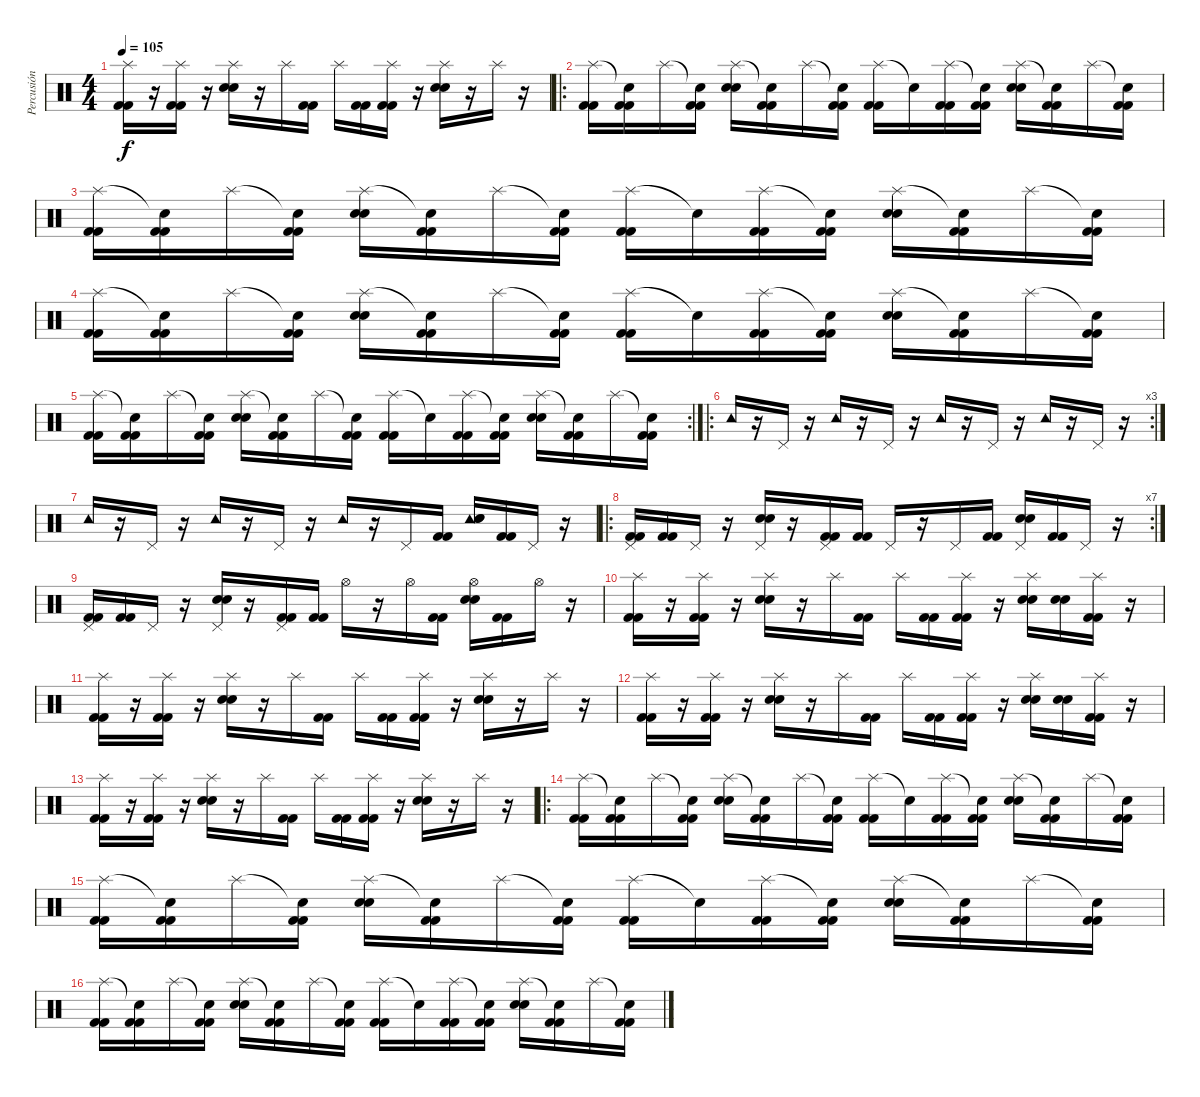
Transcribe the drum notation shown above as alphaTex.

\track ("Percusión" "Percusión") {instrument percussion}
\staff {score}
\articulation defaults
\ts (4 4)
\tempo 105
\clef neutral
\ks c
("Splash (hit)" "Kick (hit) 2" "Kick (hit) 2").16{dy f} r.16 ("Splash (hit)" "Kick (hit) 2" "Kick (hit) 2").16 r.16 ("Splash (hit)" "Electric Snare (hit)" "Electric Snare (hit)").16 r.16 "Splash (hit)".16 ("Kick (hit) 2" "Kick (hit) 2").16 "Splash (hit)".16 ("Kick (hit) 2" "Kick (hit) 2").16 ("Splash (hit)" "Kick (hit) 2" "Kick (hit) 2").16 r.16 ("Splash (hit)" "Electric Snare (hit)" "Electric Snare (hit)").16 r.16 "Splash (hit)".16 r.16 |
\ro
("Splash (hit)" "Kick (hit) 2" "Kick (hit) 2").16 ("Snare (hit)"{t} "Kick (hit) 2" "Kick (hit) 2").16 "Splash (hit)".16 ("Snare (hit)"{t} "Kick (hit) 2" "Kick (hit) 2").16 ("Splash (hit)" "Electric Snare (hit)" "Electric Snare (hit)").16 ("Snare (hit)"{t} "Kick (hit) 2" "Kick (hit) 2").16 "Splash (hit)".16 ("Snare (hit)"{t} "Kick (hit) 2" "Kick (hit) 2").16 ("Splash (hit)" "Kick (hit) 2" "Kick (hit) 2").16 "Snare (hit)"{t}.16 ("Splash (hit)" "Kick (hit) 2" "Kick (hit) 2").16 ("Snare (hit)"{t} "Kick (hit) 2" "Kick (hit) 2").16 ("Splash (hit)" "Electric Snare (hit)" "Electric Snare (hit)").16 ("Snare (hit)"{t} "Kick (hit) 2" "Kick (hit) 2").16 "Splash (hit)".16 ("Snare (hit)"{t} "Kick (hit) 2" "Kick (hit) 2").16 |
("Splash (hit)" "Kick (hit) 2" "Kick (hit) 2").16 ("Snare (hit)"{t} "Kick (hit) 2" "Kick (hit) 2").16 "Splash (hit)".16 ("Snare (hit)"{t} "Kick (hit) 2" "Kick (hit) 2").16 ("Splash (hit)" "Electric Snare (hit)" "Electric Snare (hit)").16 ("Snare (hit)"{t} "Kick (hit) 2" "Kick (hit) 2").16 "Splash (hit)".16 ("Snare (hit)"{t} "Kick (hit) 2" "Kick (hit) 2").16 ("Splash (hit)" "Kick (hit) 2" "Kick (hit) 2").16 "Snare (hit)"{t}.16 ("Splash (hit)" "Kick (hit) 2" "Kick (hit) 2").16 ("Snare (hit)"{t} "Kick (hit) 2" "Kick (hit) 2").16 ("Splash (hit)" "Electric Snare (hit)" "Electric Snare (hit)").16 ("Snare (hit)"{t} "Kick (hit) 2" "Kick (hit) 2").16 "Splash (hit)".16 ("Snare (hit)"{t} "Kick (hit) 2" "Kick (hit) 2").16 |
("Splash (hit)" "Kick (hit) 2" "Kick (hit) 2").16 ("Snare (hit)"{t} "Kick (hit) 2" "Kick (hit) 2").16 "Splash (hit)".16 ("Snare (hit)"{t} "Kick (hit) 2" "Kick (hit) 2").16 ("Splash (hit)" "Electric Snare (hit)" "Electric Snare (hit)").16 ("Snare (hit)"{t} "Kick (hit) 2" "Kick (hit) 2").16 "Splash (hit)".16 ("Snare (hit)"{t} "Kick (hit) 2" "Kick (hit) 2").16 ("Splash (hit)" "Kick (hit) 2" "Kick (hit) 2").16 "Snare (hit)"{t}.16 ("Splash (hit)" "Kick (hit) 2" "Kick (hit) 2").16 ("Snare (hit)"{t} "Kick (hit) 2" "Kick (hit) 2").16 ("Splash (hit)" "Electric Snare (hit)" "Electric Snare (hit)").16 ("Snare (hit)"{t} "Kick (hit) 2" "Kick (hit) 2").16 "Splash (hit)".16 ("Snare (hit)"{t} "Kick (hit) 2" "Kick (hit) 2").16 |
\rc 2
("Splash (hit)" "Kick (hit) 2" "Kick (hit) 2").16 ("Snare (hit)"{t} "Kick (hit) 2" "Kick (hit) 2").16 "Splash (hit)".16 ("Snare (hit)"{t} "Kick (hit) 2" "Kick (hit) 2").16 ("Splash (hit)" "Electric Snare (hit)" "Electric Snare (hit)").16 ("Snare (hit)"{t} "Kick (hit) 2" "Kick (hit) 2").16 "Splash (hit)".16 ("Snare (hit)"{t} "Kick (hit) 2" "Kick (hit) 2").16 ("Splash (hit)" "Kick (hit) 2" "Kick (hit) 2").16 "Snare (hit)"{t}.16 ("Splash (hit)" "Kick (hit) 2" "Kick (hit) 2").16 ("Snare (hit)"{t} "Kick (hit) 2" "Kick (hit) 2").16 ("Splash (hit)" "Electric Snare (hit)" "Electric Snare (hit)").16 ("Snare (hit)"{t} "Kick (hit) 2" "Kick (hit) 2").16 "Splash (hit)".16 ("Snare (hit)"{t} "Kick (hit) 2" "Kick (hit) 2").16 |
\ro
\rc 3 "Tambourine (hit)".16
r.16 "Pedal Hi-Hat (hit)".16 r.16 "Tambourine (hit)".16 r.16 "Pedal Hi-Hat (hit)".16 r.16 "Tambourine (hit)".16 r.16 "Pedal Hi-Hat (hit)".16 r.16 "Tambourine (hit)".16 r.16 "Pedal Hi-Hat (hit)".16 r.16 |
"Tambourine (hit)".16 r.16 "Pedal Hi-Hat (hit)".16 r.16 "Tambourine (hit)".16 r.16 "Pedal Hi-Hat (hit)".16 r.16 "Tambourine (hit)".16 r.16 "Pedal Hi-Hat (hit)".16 ("Kick (hit) 2" "Kick (hit) 2").16 ("Tambourine (hit)" "Electric Snare (hit)" "Electric Snare (hit)").16 ("Kick (hit) 2" "Kick (hit) 2").16 "Pedal Hi-Hat (hit)".16 r.16 |
\ro
\rc 7
("Pedal Hi-Hat (hit)" "Kick (hit) 2" "Kick (hit) 2").16 ("Kick (hit) 2" "Kick (hit) 2").16 "Pedal Hi-Hat (hit)".16 r.16 ("Pedal Hi-Hat (hit)" "Electric Snare (hit)" "Electric Snare (hit)").16 r.16 ("Pedal Hi-Hat (hit)" "Kick (hit) 2" "Kick (hit) 2").16 ("Kick (hit) 2" "Kick (hit) 2").16 "Pedal Hi-Hat (hit)".16 r.16 "Pedal Hi-Hat (hit)".16 ("Kick (hit) 2" "Kick (hit) 2").16 ("Pedal Hi-Hat (hit)" "Electric Snare (hit)" "Electric Snare (hit)").16 ("Kick (hit) 2" "Kick (hit) 2").16 "Pedal Hi-Hat (hit)".16 r.16 |
("Pedal Hi-Hat (hit)" "Kick (hit) 2" "Kick (hit) 2").16 ("Kick (hit) 2" "Kick (hit) 2").16 "Pedal Hi-Hat (hit)".16 r.16 ("Pedal Hi-Hat (hit)" "Electric Snare (hit)" "Electric Snare (hit)").16 r.16 ("Pedal Hi-Hat (hit)" "Kick (hit) 2" "Kick (hit) 2").16 ("Kick (hit) 2" "Kick (hit) 2").16 "Hi-Hat (open)".16 r.16 "Hi-Hat (open)".16 ("Kick (hit) 2" "Kick (hit) 2").16 ("Hi-Hat (open)" "Electric Snare (hit)" "Electric Snare (hit)").16 ("Kick (hit) 2" "Kick (hit) 2").16 "Hi-Hat (open)".16 r.16 |
("Splash (hit)" "Kick (hit) 2" "Kick (hit) 2").16 r.16 ("Splash (hit)" "Kick (hit) 2" "Kick (hit) 2").16 r.16 ("Splash (hit)" "Electric Snare (hit)" "Electric Snare (hit)").16 r.16 "Splash (hit)".16 ("Kick (hit) 2" "Kick (hit) 2").16 "Splash (hit)".16 ("Kick (hit) 2" "Kick (hit) 2").16 ("Splash (hit)" "Kick (hit) 2" "Kick (hit) 2").16 r.16 ("Splash (hit)" "Electric Snare (hit)" "Electric Snare (hit)").16 ("Electric Snare (hit)" "Electric Snare (hit)").16 ("Splash (hit)" "Kick (hit) 2" "Kick (hit) 2").16 r.16 |
("Splash (hit)" "Kick (hit) 2" "Kick (hit) 2").16 r.16 ("Splash (hit)" "Kick (hit) 2" "Kick (hit) 2").16 r.16 ("Splash (hit)" "Electric Snare (hit)" "Electric Snare (hit)").16 r.16 "Splash (hit)".16 ("Kick (hit) 2" "Kick (hit) 2").16 "Splash (hit)".16 ("Kick (hit) 2" "Kick (hit) 2").16 ("Splash (hit)" "Kick (hit) 2" "Kick (hit) 2").16 r.16 ("Splash (hit)" "Electric Snare (hit)" "Electric Snare (hit)").16 r.16 "Splash (hit)".16 r.16 |
("Splash (hit)" "Kick (hit) 2" "Kick (hit) 2").16 r.16 ("Splash (hit)" "Kick (hit) 2" "Kick (hit) 2").16 r.16 ("Splash (hit)" "Electric Snare (hit)" "Electric Snare (hit)").16 r.16 "Splash (hit)".16 ("Kick (hit) 2" "Kick (hit) 2").16 "Splash (hit)".16 ("Kick (hit) 2" "Kick (hit) 2").16 ("Splash (hit)" "Kick (hit) 2" "Kick (hit) 2").16 r.16 ("Splash (hit)" "Electric Snare (hit)" "Electric Snare (hit)").16 ("Electric Snare (hit)" "Electric Snare (hit)").16 ("Splash (hit)" "Kick (hit) 2" "Kick (hit) 2").16 r.16 |
("Splash (hit)" "Kick (hit) 2" "Kick (hit) 2").16 r.16 ("Splash (hit)" "Kick (hit) 2" "Kick (hit) 2").16 r.16 ("Splash (hit)" "Electric Snare (hit)" "Electric Snare (hit)").16 r.16 "Splash (hit)".16 ("Kick (hit) 2" "Kick (hit) 2").16 "Splash (hit)".16 ("Kick (hit) 2" "Kick (hit) 2").16 ("Splash (hit)" "Kick (hit) 2" "Kick (hit) 2").16 r.16 ("Splash (hit)" "Electric Snare (hit)" "Electric Snare (hit)").16 r.16 "Splash (hit)".16 r.16 |
\ro
("Splash (hit)" "Kick (hit) 2" "Kick (hit) 2").16 ("Snare (hit)"{t} "Kick (hit) 2" "Kick (hit) 2").16 "Splash (hit)".16 ("Snare (hit)"{t} "Kick (hit) 2" "Kick (hit) 2").16 ("Splash (hit)" "Electric Snare (hit)" "Electric Snare (hit)").16 ("Snare (hit)"{t} "Kick (hit) 2" "Kick (hit) 2").16 "Splash (hit)".16 ("Snare (hit)"{t} "Kick (hit) 2" "Kick (hit) 2").16 ("Splash (hit)" "Kick (hit) 2" "Kick (hit) 2").16 "Snare (hit)"{t}.16 ("Splash (hit)" "Kick (hit) 2" "Kick (hit) 2").16 ("Snare (hit)"{t} "Kick (hit) 2" "Kick (hit) 2").16 ("Splash (hit)" "Electric Snare (hit)" "Electric Snare (hit)").16 ("Snare (hit)"{t} "Kick (hit) 2" "Kick (hit) 2").16 "Splash (hit)".16 ("Snare (hit)"{t} "Kick (hit) 2" "Kick (hit) 2").16 |
("Splash (hit)" "Kick (hit) 2" "Kick (hit) 2").16 ("Snare (hit)"{t} "Kick (hit) 2" "Kick (hit) 2").16 "Splash (hit)".16 ("Snare (hit)"{t} "Kick (hit) 2" "Kick (hit) 2").16 ("Splash (hit)" "Electric Snare (hit)" "Electric Snare (hit)").16 ("Snare (hit)"{t} "Kick (hit) 2" "Kick (hit) 2").16 "Splash (hit)".16 ("Snare (hit)"{t} "Kick (hit) 2" "Kick (hit) 2").16 ("Splash (hit)" "Kick (hit) 2" "Kick (hit) 2").16 "Snare (hit)"{t}.16 ("Splash (hit)" "Kick (hit) 2" "Kick (hit) 2").16 ("Snare (hit)"{t} "Kick (hit) 2" "Kick (hit) 2").16 ("Splash (hit)" "Electric Snare (hit)" "Electric Snare (hit)").16 ("Snare (hit)"{t} "Kick (hit) 2" "Kick (hit) 2").16 "Splash (hit)".16 ("Snare (hit)"{t} "Kick (hit) 2" "Kick (hit) 2").16 |
("Splash (hit)" "Kick (hit) 2" "Kick (hit) 2").16 ("Snare (hit)"{t} "Kick (hit) 2" "Kick (hit) 2").16 "Splash (hit)".16 ("Snare (hit)"{t} "Kick (hit) 2" "Kick (hit) 2").16 ("Splash (hit)" "Electric Snare (hit)" "Electric Snare (hit)").16 ("Snare (hit)"{t} "Kick (hit) 2" "Kick (hit) 2").16 "Splash (hit)".16 ("Snare (hit)"{t} "Kick (hit) 2" "Kick (hit) 2").16 ("Splash (hit)" "Kick (hit) 2" "Kick (hit) 2").16 "Snare (hit)"{t}.16 ("Splash (hit)" "Kick (hit) 2" "Kick (hit) 2").16 ("Snare (hit)"{t} "Kick (hit) 2" "Kick (hit) 2").16 ("Splash (hit)" "Electric Snare (hit)" "Electric Snare (hit)").16 ("Snare (hit)"{t} "Kick (hit) 2" "Kick (hit) 2").16 "Splash (hit)".16 ("Snare (hit)"{t} "Kick (hit) 2" "Kick (hit) 2").16
